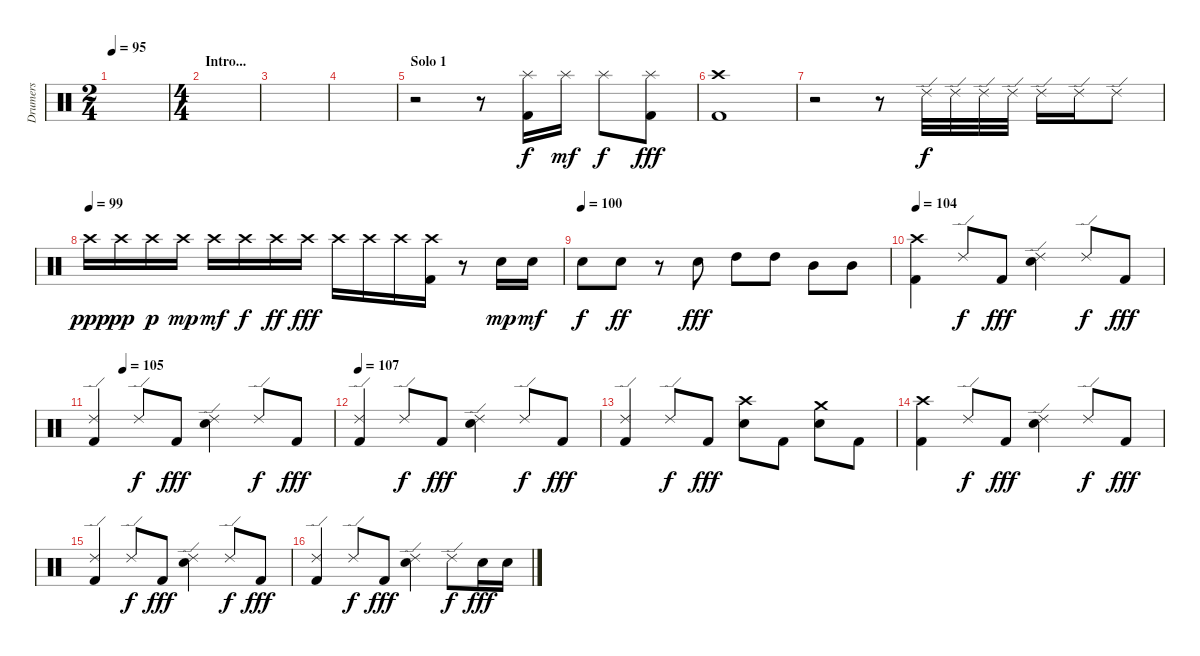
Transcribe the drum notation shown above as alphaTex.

\track ("Drumers" "Drumers") {instrument percussion}
\staff {score}
\articulation defaults
\ts (2 4)
\tempo 95
\clef neutral
\ks c
|
\ts (4 4)
\section ("" "Intro...")
|
|
|
\section ("" "Solo 1")
r.2 r.8 ("Splash (hit)" "Kick (hit) 2").16 "Splash (hit)".16{dy mf} "Splash (hit)".8{dy f} ("Splash (hit)" "Kick (hit) 2").8{dy fff} |
("Crash high (hit)" "Kick (hit) 2").1 |
r.2 r.8 "Ride (edge) 2".32{dy f} "Ride (edge) 2".32 "Ride (edge) 2".32 "Ride (edge) 2".32 "Ride (edge) 2".16 "Ride (edge) 2".16 "Ride (edge) 2".8 |
\tempo (99)
"Crash high (hit)".16{dy ppp} "Crash high (hit)".16{dy pp} "Crash high (hit)".16{dy p} "Crash high (hit)".16{dy mp} "Crash high (hit)".16{dy mf} "Crash high (hit)".16{dy f} "Crash high (hit)".16{dy ff} "Crash high (hit)".16{dy fff} "Crash high (hit)".16 "Crash high (hit)".16 "Crash high (hit)".16 ("Crash high (hit)" "Kick (hit) 2").16 r.8 "Electric Snare (hit)".16{dy mp} "Electric Snare (hit)".16{dy mf} |
\tempo (100)
"Electric Snare (hit)".8{dy f} "Electric Snare (hit)".8{dy ff} r.8 "Electric Snare (hit)".8{dy fff} "High Tom (hit)".8 "High Tom (hit)".8 "Mid Tom (hit)".8 "Mid Tom (hit)".8 |
\tempo 104
("Crash high (hit)" "Kick (hit) 2").4 "Ride (edge) 2".8{dy f} "Kick (hit) 2".8{dy fff} ("Ride (edge) 2" "Electric Snare (hit)").4 "Ride (edge) 2".8{dy f} "Kick (hit) 2".8{dy fff} |
\tempo (105 0.125)
("Ride (edge) 2" "Kick (hit) 2").4 "Ride (edge) 2".8{dy f} "Kick (hit) 2".8{dy fff} ("Ride (edge) 2" "Electric Snare (hit)").4 "Ride (edge) 2".8{dy f} "Kick (hit) 2".8{dy fff} |
\tempo 107
("Ride (edge) 2" "Kick (hit) 2").4 "Ride (edge) 2".8{dy f} "Kick (hit) 2".8{dy fff} ("Ride (edge) 2" "Electric Snare (hit)").4 "Ride (edge) 2".8{dy f} "Kick (hit) 2".8{dy fff} |
("Ride (edge) 2" "Kick (hit) 2").4 "Ride (edge) 2".8{dy f} "Kick (hit) 2".8{dy fff} ("Crash high (hit)" "Electric Snare (hit)").8 "Kick (hit) 2".8 ("Crash medium (hit)" "Electric Snare (hit)").8 "Kick (hit) 2".8 |
("Crash high (hit)" "Kick (hit) 2").4 "Ride (edge) 2".8{dy f} "Kick (hit) 2".8{dy fff} ("Ride (edge) 2" "Electric Snare (hit)").4 "Ride (edge) 2".8{dy f} "Kick (hit) 2".8{dy fff} |
("Ride (edge) 2" "Kick (hit) 2").4 "Ride (edge) 2".8{dy f} "Kick (hit) 2".8{dy fff} ("Ride (edge) 2" "Electric Snare (hit)").4 "Ride (edge) 2".8{dy f} "Kick (hit) 2".8{dy fff} |
("Ride (edge) 2" "Kick (hit) 2").4 "Ride (edge) 2".8{dy f} "Kick (hit) 2".8{dy fff} ("Ride (edge) 2" "Electric Snare (hit)").4 "Ride (edge) 2".8{dy f} "Electric Snare (hit)".16{dy fff} "Electric Snare (hit)".16
